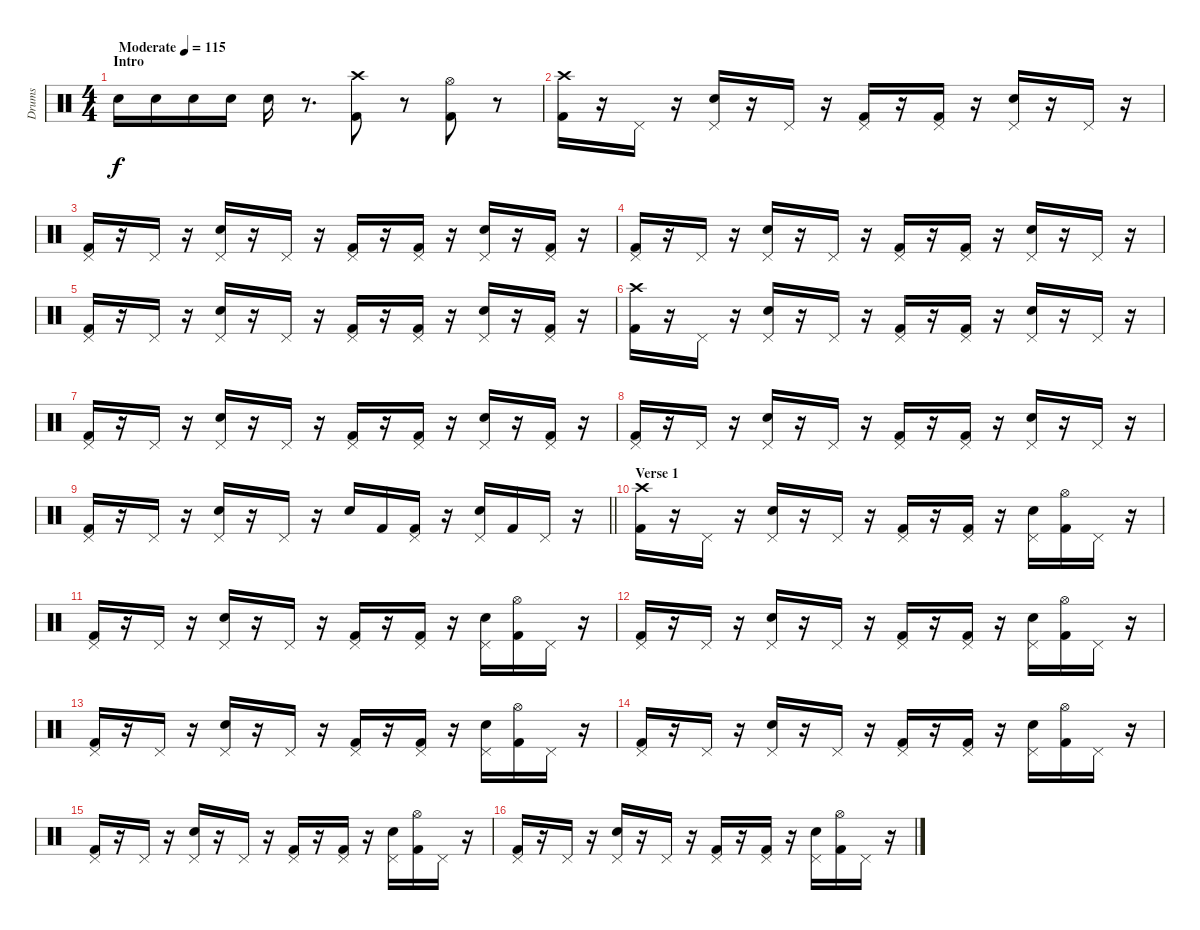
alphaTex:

\track ("Drums" "Drums") {instrument percussion}
\staff {score}
\articulation defaults
\ts (4 4)
\section ("" "Intro")
\tempo (115 "Moderate")
\clef neutral
\ks c "Snare (hit) 2".16{dy f} "Snare (hit) 2".16 "Snare (hit) 2".16 "Snare (hit) 2".16 "Snare (hit) 2".16
r.8{d} ("Crash high (hit)" "Kick (hit) 2").8 r.8 ("Hi-Hat (open)" "Kick (hit) 2").8 r.8 |
("Crash high (hit)" "Kick (hit) 2").16 r.16 "Pedal Hi-Hat (hit)".16 r.16 ("Pedal Hi-Hat (hit)" "Snare (hit) 2").16 r.16 "Pedal Hi-Hat (hit)".16 r.16 ("Pedal Hi-Hat (hit)" "Kick (hit) 2").16 r.16 ("Pedal Hi-Hat (hit)" "Kick (hit) 2").16 r.16 ("Pedal Hi-Hat (hit)" "Snare (hit) 2").16 r.16 "Pedal Hi-Hat (hit)".16 r.16 |
("Pedal Hi-Hat (hit)" "Kick (hit) 2").16 r.16 "Pedal Hi-Hat (hit)".16 r.16 ("Pedal Hi-Hat (hit)" "Snare (hit) 2").16 r.16 "Pedal Hi-Hat (hit)".16 r.16 ("Pedal Hi-Hat (hit)" "Kick (hit) 2").16 r.16 ("Pedal Hi-Hat (hit)" "Kick (hit) 2").16 r.16 ("Pedal Hi-Hat (hit)" "Snare (hit) 2").16 r.16 ("Pedal Hi-Hat (hit)" "Kick (hit) 2").16 r.16 |
("Pedal Hi-Hat (hit)" "Kick (hit) 2").16 r.16 "Pedal Hi-Hat (hit)".16 r.16 ("Pedal Hi-Hat (hit)" "Snare (hit) 2").16 r.16 "Pedal Hi-Hat (hit)".16 r.16 ("Pedal Hi-Hat (hit)" "Kick (hit) 2").16 r.16 ("Pedal Hi-Hat (hit)" "Kick (hit) 2").16 r.16 ("Pedal Hi-Hat (hit)" "Snare (hit) 2").16 r.16 "Pedal Hi-Hat (hit)".16 r.16 |
("Pedal Hi-Hat (hit)" "Kick (hit) 2").16 r.16 "Pedal Hi-Hat (hit)".16 r.16 ("Pedal Hi-Hat (hit)" "Snare (hit) 2").16 r.16 "Pedal Hi-Hat (hit)".16 r.16 ("Pedal Hi-Hat (hit)" "Kick (hit) 2").16 r.16 ("Pedal Hi-Hat (hit)" "Kick (hit) 2").16 r.16 ("Pedal Hi-Hat (hit)" "Snare (hit) 2").16 r.16 ("Pedal Hi-Hat (hit)" "Kick (hit) 2").16 r.16 |
("Crash high (hit)" "Kick (hit) 2").16 r.16 "Pedal Hi-Hat (hit)".16 r.16 ("Pedal Hi-Hat (hit)" "Snare (hit) 2").16 r.16 "Pedal Hi-Hat (hit)".16 r.16 ("Pedal Hi-Hat (hit)" "Kick (hit) 2").16 r.16 ("Pedal Hi-Hat (hit)" "Kick (hit) 2").16 r.16 ("Pedal Hi-Hat (hit)" "Snare (hit) 2").16 r.16 "Pedal Hi-Hat (hit)".16 r.16 |
("Pedal Hi-Hat (hit)" "Kick (hit) 2").16 r.16 "Pedal Hi-Hat (hit)".16 r.16 ("Pedal Hi-Hat (hit)" "Snare (hit) 2").16 r.16 "Pedal Hi-Hat (hit)".16 r.16 ("Pedal Hi-Hat (hit)" "Kick (hit) 2").16 r.16 ("Pedal Hi-Hat (hit)" "Kick (hit) 2").16 r.16 ("Pedal Hi-Hat (hit)" "Snare (hit) 2").16 r.16 ("Pedal Hi-Hat (hit)" "Kick (hit) 2").16 r.16 |
("Pedal Hi-Hat (hit)" "Kick (hit) 2").16 r.16 "Pedal Hi-Hat (hit)".16 r.16 ("Pedal Hi-Hat (hit)" "Snare (hit) 2").16 r.16 "Pedal Hi-Hat (hit)".16 r.16 ("Pedal Hi-Hat (hit)" "Kick (hit) 2").16 r.16 ("Pedal Hi-Hat (hit)" "Kick (hit) 2").16 r.16 ("Pedal Hi-Hat (hit)" "Snare (hit) 2").16 r.16 "Pedal Hi-Hat (hit)".16 r.16 |
\barLineRight lightlight
("Pedal Hi-Hat (hit)" "Kick (hit) 2").16 r.16 "Pedal Hi-Hat (hit)".16 r.16 ("Pedal Hi-Hat (hit)" "Snare (hit) 2").16 r.16 "Pedal Hi-Hat (hit)".16 r.16 "Snare (hit) 2".16 "Kick (hit) 2".16 ("Pedal Hi-Hat (hit)" "Kick (hit) 2").16 r.16 ("Pedal Hi-Hat (hit)" "Snare (hit) 2").16 "Kick (hit) 2".16 "Pedal Hi-Hat (hit)".16 r.16 |
\section ("" "Verse 1")
("Crash high (hit)" "Kick (hit) 2").16 r.16 "Pedal Hi-Hat (hit)".16 r.16 ("Pedal Hi-Hat (hit)" "Snare (hit) 2").16 r.16 "Pedal Hi-Hat (hit)".16 r.16 ("Pedal Hi-Hat (hit)" "Kick (hit) 2").16 r.16 ("Pedal Hi-Hat (hit)" "Kick (hit) 2").16 r.16 ("Pedal Hi-Hat (hit)" "Snare (hit) 2").16 ("Hi-Hat (open)" "Kick (hit) 2").16 "Pedal Hi-Hat (hit)".16 r.16 |
("Pedal Hi-Hat (hit)" "Kick (hit) 2").16 r.16 "Pedal Hi-Hat (hit)".16 r.16 ("Pedal Hi-Hat (hit)" "Snare (hit) 2").16 r.16 "Pedal Hi-Hat (hit)".16 r.16 ("Pedal Hi-Hat (hit)" "Kick (hit) 2").16 r.16 ("Pedal Hi-Hat (hit)" "Kick (hit) 2").16 r.16 ("Pedal Hi-Hat (hit)" "Snare (hit) 2").16 ("Hi-Hat (open)" "Kick (hit) 2").16 "Pedal Hi-Hat (hit)".16 r.16 |
("Pedal Hi-Hat (hit)" "Kick (hit) 2").16 r.16 "Pedal Hi-Hat (hit)".16 r.16 ("Pedal Hi-Hat (hit)" "Snare (hit) 2").16 r.16 "Pedal Hi-Hat (hit)".16 r.16 ("Pedal Hi-Hat (hit)" "Kick (hit) 2").16 r.16 ("Pedal Hi-Hat (hit)" "Kick (hit) 2").16 r.16 ("Pedal Hi-Hat (hit)" "Snare (hit) 2").16 ("Hi-Hat (open)" "Kick (hit) 2").16 "Pedal Hi-Hat (hit)".16 r.16 |
("Pedal Hi-Hat (hit)" "Kick (hit) 2").16 r.16 "Pedal Hi-Hat (hit)".16 r.16 ("Pedal Hi-Hat (hit)" "Snare (hit) 2").16 r.16 "Pedal Hi-Hat (hit)".16 r.16 ("Pedal Hi-Hat (hit)" "Kick (hit) 2").16 r.16 ("Pedal Hi-Hat (hit)" "Kick (hit) 2").16 r.16 ("Pedal Hi-Hat (hit)" "Snare (hit) 2").16 ("Hi-Hat (open)" "Kick (hit) 2").16 "Pedal Hi-Hat (hit)".16 r.16 |
("Pedal Hi-Hat (hit)" "Kick (hit) 2").16 r.16 "Pedal Hi-Hat (hit)".16 r.16 ("Pedal Hi-Hat (hit)" "Snare (hit) 2").16 r.16 "Pedal Hi-Hat (hit)".16 r.16 ("Pedal Hi-Hat (hit)" "Kick (hit) 2").16 r.16 ("Pedal Hi-Hat (hit)" "Kick (hit) 2").16 r.16 ("Pedal Hi-Hat (hit)" "Snare (hit) 2").16 ("Hi-Hat (open)" "Kick (hit) 2").16 "Pedal Hi-Hat (hit)".16 r.16 |
("Pedal Hi-Hat (hit)" "Kick (hit) 2").16 r.16 "Pedal Hi-Hat (hit)".16 r.16 ("Pedal Hi-Hat (hit)" "Snare (hit) 2").16 r.16 "Pedal Hi-Hat (hit)".16 r.16 ("Pedal Hi-Hat (hit)" "Kick (hit) 2").16 r.16 ("Pedal Hi-Hat (hit)" "Kick (hit) 2").16 r.16 ("Pedal Hi-Hat (hit)" "Snare (hit) 2").16 ("Hi-Hat (open)" "Kick (hit) 2").16 "Pedal Hi-Hat (hit)".16 r.16 |
("Pedal Hi-Hat (hit)" "Kick (hit) 2").16 r.16 "Pedal Hi-Hat (hit)".16 r.16 ("Pedal Hi-Hat (hit)" "Snare (hit) 2").16 r.16 "Pedal Hi-Hat (hit)".16 r.16 ("Pedal Hi-Hat (hit)" "Kick (hit) 2").16 r.16 ("Pedal Hi-Hat (hit)" "Kick (hit) 2").16 r.16 ("Pedal Hi-Hat (hit)" "Snare (hit) 2").16 ("Hi-Hat (open)" "Kick (hit) 2").16 "Pedal Hi-Hat (hit)".16 r.16
